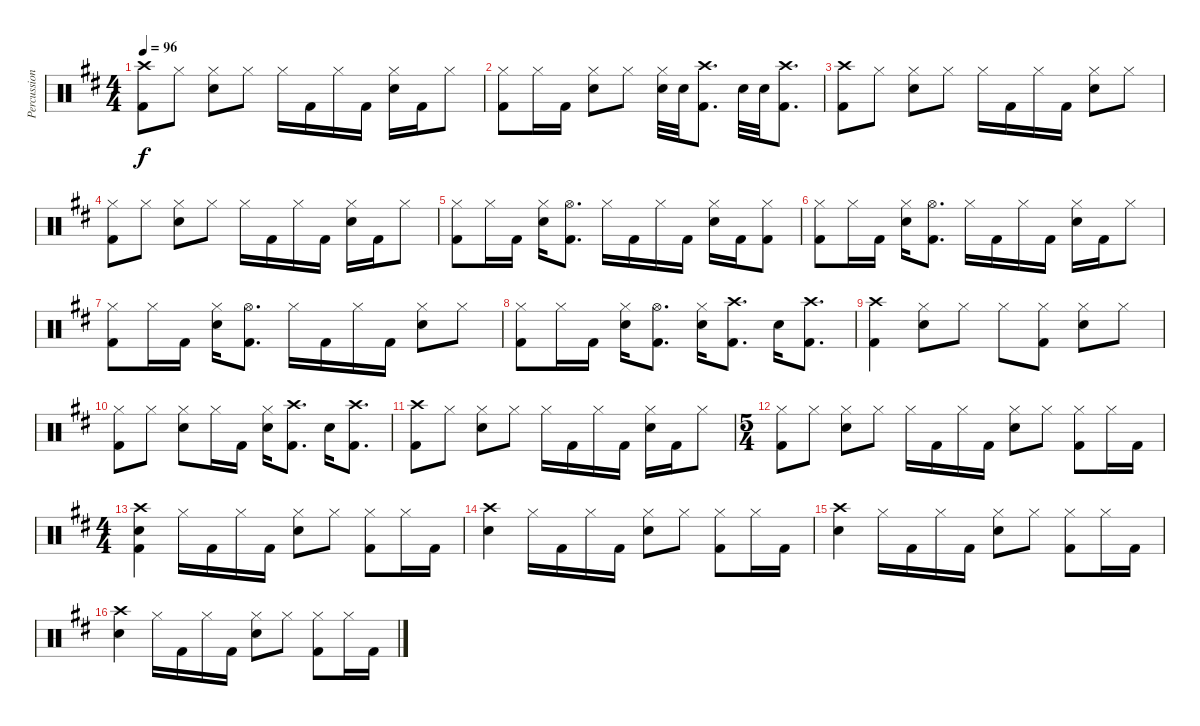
\track ("Percussion" "Percussion") {instrument percussion}
\staff {score}
\articulation defaults
\ts (4 4)
\tempo 96
\clef neutral
\ks d
("Crash high (hit)" "Kick (hit) 2").8{dy f} "Hi-Hat (closed)".8 ("Hi-Hat (closed)" "Electric Snare (hit)").8 "Hi-Hat (closed)".8 "Hi-Hat (closed)".16 "Kick (hit) 2".16 "Hi-Hat (closed)".16 "Kick (hit) 2".16 ("Hi-Hat (closed)" "Electric Snare (hit)").16 "Kick (hit) 2".16 "Hi-Hat (closed)".8 |
("Hi-Hat (closed)" "Kick (hit) 2").8 "Hi-Hat (closed)".16 "Kick (hit) 2".16 ("Hi-Hat (closed)" "Electric Snare (hit)").8 "Hi-Hat (closed)".8 ("Hi-Hat (closed)" "Electric Snare (hit)").32 "Electric Snare (hit)".32 ("Crash high (hit)" "Kick (hit) 2").8{d} "Electric Snare (hit)".32 "Electric Snare (hit)".32 ("Crash high (hit)" "Kick (hit) 2").8{d} |
("Crash high (hit)" "Kick (hit) 2").8 "Hi-Hat (closed)".8 ("Hi-Hat (closed)" "Electric Snare (hit)").8 "Hi-Hat (closed)".8 "Hi-Hat (closed)".16 "Kick (hit) 2".16 "Hi-Hat (closed)".16 "Kick (hit) 2".16 ("Hi-Hat (closed)" "Electric Snare (hit)").8 "Hi-Hat (closed)".8 |
("Hi-Hat (closed)" "Kick (hit) 2").8 "Hi-Hat (closed)".8 ("Hi-Hat (closed)" "Electric Snare (hit)").8 "Hi-Hat (closed)".8 "Hi-Hat (closed)".16 "Kick (hit) 2".16 "Hi-Hat (closed)".16 "Kick (hit) 2".16 ("Hi-Hat (closed)" "Electric Snare (hit)").16 "Kick (hit) 2".16 "Hi-Hat (closed)".8 |
("Hi-Hat (closed)" "Kick (hit) 2").8 "Hi-Hat (closed)".16 "Kick (hit) 2".16 ("Hi-Hat (closed)" "Electric Snare (hit)").16 ("Hi-Hat (open)" "Kick (hit) 2").8{d} "Hi-Hat (closed)".16 "Kick (hit) 2".16 "Hi-Hat (closed)".16 "Kick (hit) 2".16 ("Hi-Hat (closed)" "Electric Snare (hit)").16 "Kick (hit) 2".16 ("Hi-Hat (closed)" "Kick (hit) 2").8 |
("Hi-Hat (closed)" "Kick (hit) 2").8 "Hi-Hat (closed)".16 "Kick (hit) 2".16 ("Hi-Hat (closed)" "Electric Snare (hit)").16 ("Hi-Hat (open)" "Kick (hit) 2").8{d} "Hi-Hat (closed)".16 "Kick (hit) 2".16 "Hi-Hat (closed)".16 "Kick (hit) 2".16 ("Hi-Hat (closed)" "Electric Snare (hit)").16 "Kick (hit) 2".16 "Hi-Hat (closed)".8 |
("Hi-Hat (closed)" "Kick (hit) 2").8 "Hi-Hat (closed)".16 "Kick (hit) 2".16 ("Hi-Hat (closed)" "Electric Snare (hit)").16 ("Hi-Hat (open)" "Kick (hit) 2").8{d} "Hi-Hat (closed)".16 "Kick (hit) 2".16 "Hi-Hat (closed)".16 "Kick (hit) 2".16 ("Hi-Hat (closed)" "Electric Snare (hit)").8 "Hi-Hat (closed)".8 |
("Hi-Hat (closed)" "Kick (hit) 2").8 "Hi-Hat (closed)".16 "Kick (hit) 2".16 ("Hi-Hat (closed)" "Electric Snare (hit)").16 ("Hi-Hat (open)" "Kick (hit) 2").8{d} ("Hi-Hat (closed)" "Electric Snare (hit)").16 ("Crash high (hit)" "Kick (hit) 2").8{d} "Electric Snare (hit)".16 ("Crash high (hit)" "Kick (hit) 2").8{d} |
("Crash high (hit)" "Kick (hit) 2").4 ("Hi-Hat (closed)" "Electric Snare (hit)").8 "Hi-Hat (closed)".8 "Hi-Hat (closed)".8 ("Hi-Hat (closed)" "Kick (hit) 2").8 ("Hi-Hat (closed)" "Electric Snare (hit)").8 "Hi-Hat (closed)".8 |
("Hi-Hat (closed)" "Kick (hit) 2").8 "Hi-Hat (closed)".8 ("Hi-Hat (closed)" "Electric Snare (hit)").8 "Hi-Hat (closed)".16 "Kick (hit) 2".16 ("Hi-Hat (closed)" "Electric Snare (hit)").16 ("Crash high (hit)" "Kick (hit) 2").8{d} "Electric Snare (hit)".16 ("Crash high (hit)" "Kick (hit) 2").8{d} |
("Crash high (hit)" "Kick (hit) 2").8 "Hi-Hat (closed)".8 ("Hi-Hat (closed)" "Electric Snare (hit)").8 "Hi-Hat (closed)".8 "Hi-Hat (closed)".16 "Kick (hit) 2".16 "Hi-Hat (closed)".16 "Kick (hit) 2".16 ("Hi-Hat (closed)" "Electric Snare (hit)").16 "Kick (hit) 2".16 "Hi-Hat (closed)".8 |
\ts (5 4)
("Hi-Hat (closed)" "Kick (hit) 2").8 "Hi-Hat (closed)".8 ("Hi-Hat (closed)" "Electric Snare (hit)").8 "Hi-Hat (closed)".8 "Hi-Hat (closed)".16 "Kick (hit) 2".16 "Hi-Hat (closed)".16 "Kick (hit) 2".16 ("Hi-Hat (closed)" "Electric Snare (hit)").8 "Hi-Hat (closed)".8 ("Hi-Hat (closed)" "Kick (hit) 2").8 "Hi-Hat (closed)".16 "Kick (hit) 2".16 |
\ts (4 4)
("Crash high (hit)" "Electric Snare (hit)" "Kick (hit) 2").4 "Hi-Hat (closed)".16 "Kick (hit) 2".16 "Hi-Hat (closed)".16 "Kick (hit) 2".16 ("Hi-Hat (closed)" "Electric Snare (hit)").8 "Hi-Hat (closed)".8 ("Hi-Hat (closed)" "Kick (hit) 2").8 "Hi-Hat (closed)".16 "Kick (hit) 2".16 |
("Crash high (hit)" "Electric Snare (hit)").4 "Hi-Hat (closed)".16 "Kick (hit) 2".16 "Hi-Hat (closed)".16 "Kick (hit) 2".16 ("Hi-Hat (closed)" "Electric Snare (hit)").8 "Hi-Hat (closed)".8 ("Hi-Hat (closed)" "Kick (hit) 2").8 "Hi-Hat (closed)".16 "Kick (hit) 2".16 |
("Crash high (hit)" "Electric Snare (hit)").4 "Hi-Hat (closed)".16 "Kick (hit) 2".16 "Hi-Hat (closed)".16 "Kick (hit) 2".16 ("Hi-Hat (closed)" "Electric Snare (hit)").8 "Hi-Hat (closed)".8 ("Hi-Hat (closed)" "Kick (hit) 2").8 "Hi-Hat (closed)".16 "Kick (hit) 2".16 |
("Crash high (hit)" "Electric Snare (hit)").4 "Hi-Hat (closed)".16 "Kick (hit) 2".16 "Hi-Hat (closed)".16 "Kick (hit) 2".16 ("Hi-Hat (closed)" "Electric Snare (hit)").8 "Hi-Hat (closed)".8 ("Hi-Hat (closed)" "Kick (hit) 2").8 "Hi-Hat (closed)".16 "Kick (hit) 2".16
